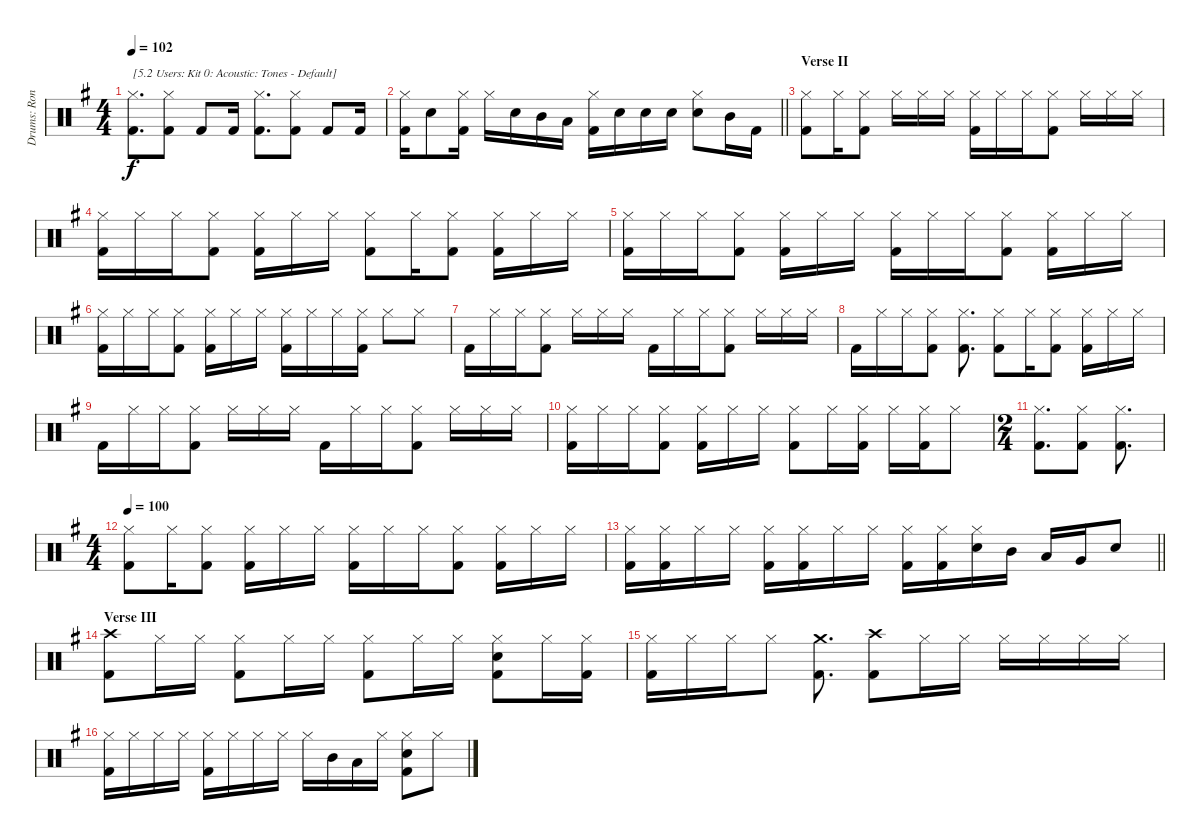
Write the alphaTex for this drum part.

\track ("Drums: Ronnie" "Drums: Ron") {instrument percussion}
\staff {score}
\articulation defaults
\ts (4 4)
\tempo 102
\clef neutral
\ks g
("Hi-Hat (closed)" "Kick (hit) 2").8{d txt "[5.2 Users: Kit 0: Acoustic: Tones - Default]" dy f} ("Hi-Hat (closed)" "Kick (hit) 2").8 "Kick (hit) 2".8 "Kick (hit) 2".16 ("Hi-Hat (closed)" "Kick (hit) 2").8{d} ("Hi-Hat (closed)" "Kick (hit) 2").8 "Kick (hit) 2".8 "Kick (hit) 2".16 |
\barLineRight lightlight
("Hi-Hat (closed)" "Kick (hit) 2").16 "Electric Snare (hit)".8 ("Hi-Hat (closed)" "Kick (hit) 2").16 "Hi-Hat (closed)".16 "Electric Snare (hit)".16 "Mid Tom (hit)".16 "Low Tom (hit)".16 ("Hi-Hat (closed)" "Kick (hit) 2").16 "Electric Snare (hit)".16 "Electric Snare (hit)".16 "Electric Snare (hit)".16 ("Hi-Hat (closed)" "Electric Snare (hit)").8 "Mid Tom (hit)".16 "Kick (hit) 2".16 |
\section ("" "Verse II")
("Hi-Hat (closed)" "Kick (hit) 2").8 "Hi-Hat (closed)".16 ("Hi-Hat (closed)" "Kick (hit) 2").8 "Hi-Hat (closed)".16 "Hi-Hat (closed)".16 "Hi-Hat (closed)".16 ("Hi-Hat (closed)" "Kick (hit) 2").16 "Hi-Hat (closed)".16 "Hi-Hat (closed)".16 ("Hi-Hat (closed)" "Kick (hit) 2").8 "Hi-Hat (closed)".16 "Hi-Hat (closed)".16 "Hi-Hat (closed)".16 |
("Hi-Hat (closed)" "Kick (hit) 2").16 "Hi-Hat (closed)".16 "Hi-Hat (closed)".16 ("Hi-Hat (closed)" "Kick (hit) 2").8 ("Hi-Hat (closed)" "Kick (hit) 2").16 "Hi-Hat (closed)".16 "Hi-Hat (closed)".16 ("Hi-Hat (closed)" "Kick (hit) 2").8 "Hi-Hat (closed)".16 ("Hi-Hat (closed)" "Kick (hit) 2").8 ("Hi-Hat (closed)" "Kick (hit) 2").16 "Hi-Hat (closed)".16 "Hi-Hat (closed)".16 |
("Hi-Hat (closed)" "Kick (hit) 2").16 "Hi-Hat (closed)".16 "Hi-Hat (closed)".16 ("Hi-Hat (closed)" "Kick (hit) 2").8 ("Hi-Hat (closed)" "Kick (hit) 2").16 "Hi-Hat (closed)".16 "Hi-Hat (closed)".16 ("Hi-Hat (closed)" "Kick (hit) 2").16 "Hi-Hat (closed)".16 "Hi-Hat (closed)".16 ("Hi-Hat (closed)" "Kick (hit) 2").8 ("Hi-Hat (closed)" "Kick (hit) 2").16 "Hi-Hat (closed)".16 "Hi-Hat (closed)".16 |
("Hi-Hat (closed)" "Kick (hit) 2").16 "Hi-Hat (closed)".16 "Hi-Hat (closed)".16 ("Hi-Hat (closed)" "Kick (hit) 2").8 ("Hi-Hat (closed)" "Kick (hit) 2").16 "Hi-Hat (closed)".16 "Hi-Hat (closed)".16 ("Hi-Hat (closed)" "Kick (hit) 2").16 "Hi-Hat (closed)".16 "Hi-Hat (closed)".16 ("Hi-Hat (closed)" "Kick (hit) 2").16 "Hi-Hat (closed)".8 "Hi-Hat (closed)".8 |
"Kick (hit) 2".16 "Hi-Hat (closed)".16 "Hi-Hat (closed)".16 ("Hi-Hat (closed)" "Kick (hit) 2").8 "Hi-Hat (closed)".16 "Hi-Hat (closed)".16 "Hi-Hat (closed)".16 "Kick (hit) 2".16 "Hi-Hat (closed)".16 "Hi-Hat (closed)".16 ("Hi-Hat (closed)" "Kick (hit) 2").8 "Hi-Hat (closed)".16 "Hi-Hat (closed)".16 "Hi-Hat (closed)".16 |
"Kick (hit) 2".16 "Hi-Hat (closed)".16 "Hi-Hat (closed)".16 ("Hi-Hat (closed)" "Kick (hit) 2").8 ("Hi-Hat (closed)" "Kick (hit) 2").8{d} ("Hi-Hat (closed)" "Kick (hit) 2").8 "Hi-Hat (closed)".16 ("Hi-Hat (closed)" "Kick (hit) 2").8 ("Hi-Hat (closed)" "Kick (hit) 2").16 "Hi-Hat (closed)".16 "Hi-Hat (closed)".16 |
"Kick (hit) 2".16 "Hi-Hat (closed)".16 "Hi-Hat (closed)".16 ("Hi-Hat (closed)" "Kick (hit) 2").8 "Hi-Hat (closed)".16 "Hi-Hat (closed)".16 "Hi-Hat (closed)".16 "Kick (hit) 2".16 "Hi-Hat (closed)".16 "Hi-Hat (closed)".16 ("Hi-Hat (closed)" "Kick (hit) 2").8 "Hi-Hat (closed)".16 "Hi-Hat (closed)".16 "Hi-Hat (closed)".16 |
("Hi-Hat (closed)" "Kick (hit) 2").16 "Hi-Hat (closed)".16 "Hi-Hat (closed)".16 ("Hi-Hat (closed)" "Kick (hit) 2").8 ("Hi-Hat (closed)" "Kick (hit) 2").16 "Hi-Hat (closed)".16 "Hi-Hat (closed)".16 ("Hi-Hat (closed)" "Kick (hit) 2").8 "Hi-Hat (closed)".16 ("Hi-Hat (closed)" "Kick (hit) 2").16 "Hi-Hat (closed)".16 ("Hi-Hat (closed)" "Kick (hit) 2").16 "Hi-Hat (closed)".8 |
\ts (2 4)
("Hi-Hat (closed)" "Kick (hit) 2").8{d} ("Hi-Hat (closed)" "Kick (hit) 2").8 ("Hi-Hat (closed)" "Kick (hit) 2").8{d} |
\ts (4 4)
\tempo 100
("Hi-Hat (closed)" "Kick (hit) 2").8 "Hi-Hat (closed)".16 ("Hi-Hat (closed)" "Kick (hit) 2").8 ("Hi-Hat (closed)" "Kick (hit) 2").16 "Hi-Hat (closed)".16 "Hi-Hat (closed)".16 ("Hi-Hat (closed)" "Kick (hit) 2").16 "Hi-Hat (closed)".16 "Hi-Hat (closed)".16 ("Hi-Hat (closed)" "Kick (hit) 2").8 ("Hi-Hat (closed)" "Kick (hit) 2").16 "Hi-Hat (closed)".16 "Hi-Hat (closed)".16 |
\barLineRight lightlight
("Hi-Hat (closed)" "Kick (hit) 2").16 ("Hi-Hat (closed)" "Kick (hit) 2").16 "Hi-Hat (closed)".16 "Hi-Hat (closed)".16 ("Hi-Hat (closed)" "Kick (hit) 2").16 ("Hi-Hat (closed)" "Kick (hit) 2").16 "Hi-Hat (closed)".16 "Hi-Hat (closed)".16 ("Hi-Hat (closed)" "Kick (hit) 2").16 ("Hi-Hat (closed)" "Kick (hit) 2").16 ("Hi-Hat (closed)" "Electric Snare (hit)").16 "Mid Tom (hit)".16 "Low Tom (hit)".16 "Very Low Tom (hit)".16 "Electric Snare (hit)".8 |
\section ("" "Verse III")
("Crash high (hit)" "Kick (hit) 2").8 "Hi-Hat (closed)".16 "Hi-Hat (closed)".16 ("Hi-Hat (closed)" "Kick (hit) 2").8 "Hi-Hat (closed)".16 "Hi-Hat (closed)".16 ("Hi-Hat (closed)" "Kick (hit) 2").8 "Hi-Hat (closed)".16 "Hi-Hat (closed)".16 ("Hi-Hat (closed)" "Electric Snare (hit)" "Kick (hit) 2").8 "Hi-Hat (closed)".16 ("Hi-Hat (closed)" "Kick (hit) 2").16 |
("Hi-Hat (closed)" "Kick (hit) 2").16 "Hi-Hat (closed)".16 "Hi-Hat (closed)".16 "Hi-Hat (closed)".8 ("Crash medium (hit)" "Kick (hit) 2").8{d} ("Crash high (hit)" "Kick (hit) 2").8 "Hi-Hat (closed)".16 "Hi-Hat (closed)".16 "Hi-Hat (closed)".16 "Hi-Hat (closed)".16 "Hi-Hat (closed)".16 "Hi-Hat (closed)".16 |
("Hi-Hat (closed)" "Kick (hit) 2").16 "Hi-Hat (closed)".16 "Hi-Hat (closed)".16 "Hi-Hat (closed)".16 ("Hi-Hat (closed)" "Kick (hit) 2").16 "Hi-Hat (closed)".16 "Hi-Hat (closed)".16 "Hi-Hat (closed)".16 "Hi-Hat (closed)".16 "Mid Tom (hit)".16 "Low Tom (hit)".16 "Hi-Hat (closed)".16 ("Hi-Hat (closed)" "Electric Snare (hit)" "Kick (hit) 2").8 "Hi-Hat (closed)".8
